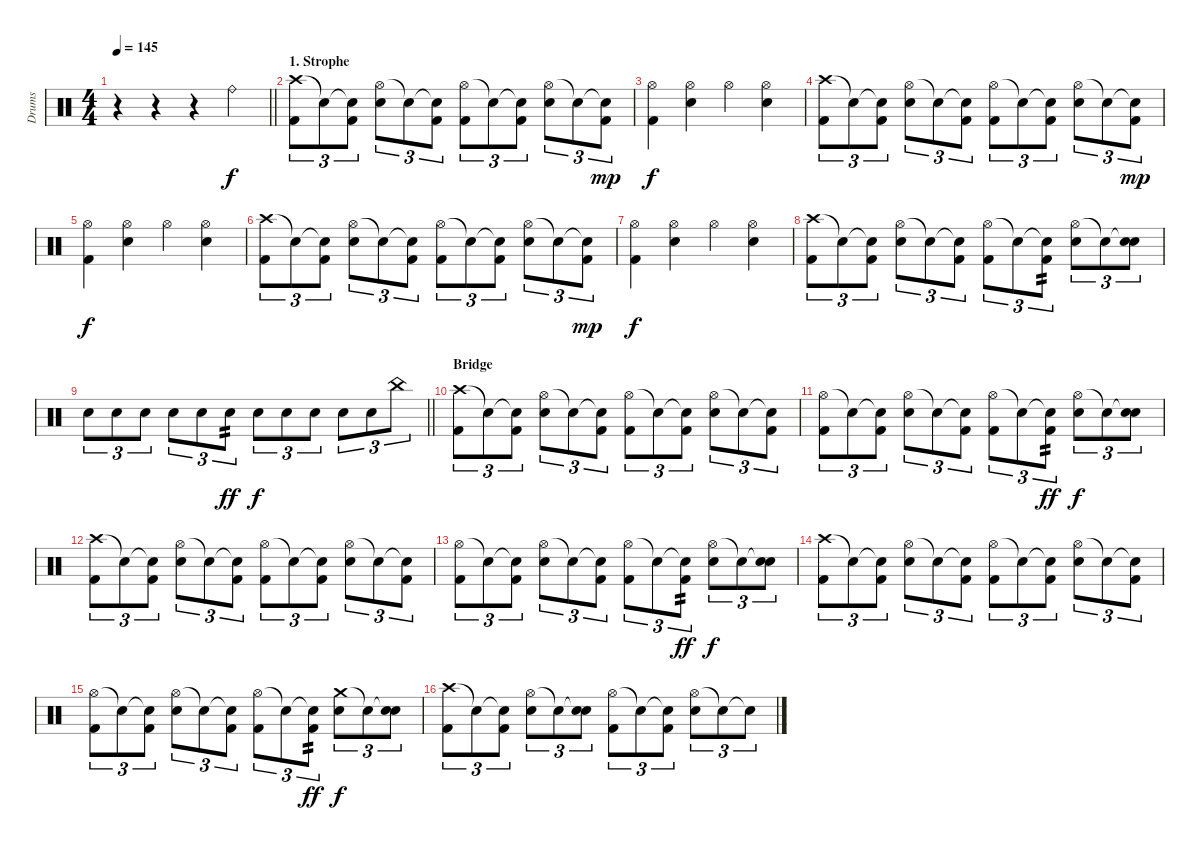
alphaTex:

\track ("Drums" "Drums") {instrument percussion}
\staff {score}
\articulation defaults
\ts (4 4)
\tempo 145
\clef neutral
\barLineRight lightlight
\ks c
r.4{dy f} r.4 r.4 "Ride (bell)".4 |
\section ("" "1. Strophe")
("Crash high (hit)" "Kick (hit) 2").8{tu (3 2)} "Snare (hit)"{t}.8{tu (3 2)} ("Snare (hit)"{t} "Kick (hit) 2").8{tu (3 2)} ("Hi-Hat (open)" "Snare (hit) 2").8{tu (3 2)} "Snare (hit)"{t}.8{tu (3 2)} ("Snare (hit)"{t} "Kick (hit) 2").8{tu (3 2)} ("Hi-Hat (open)" "Kick (hit) 2").8{tu (3 2)} "Snare (hit)"{t}.8{tu (3 2)} ("Snare (hit)"{t} "Kick (hit) 2").8{tu (3 2)} ("Hi-Hat (open)" "Snare (hit) 2").8{tu (3 2)} "Snare (hit)"{t}.8{tu (3 2)} ("Snare (hit)"{t} "Kick (hit) 2").8{tu (3 2) dy mp} |
("Hi-Hat (open)" "Kick (hit) 2").4{dy f} ("Hi-Hat (open)" "Snare (hit) 2").4 "Hi-Hat (open)".4 ("Hi-Hat (open)" "Snare (hit) 2").4 |
("Crash high (hit)" "Kick (hit) 2").8{tu (3 2)} "Snare (hit)"{t}.8{tu (3 2)} ("Snare (hit)"{t} "Kick (hit) 2").8{tu (3 2)} ("Hi-Hat (open)" "Snare (hit) 2").8{tu (3 2)} "Snare (hit)"{t}.8{tu (3 2)} ("Snare (hit)"{t} "Kick (hit) 2").8{tu (3 2)} ("Hi-Hat (open)" "Kick (hit) 2").8{tu (3 2)} "Snare (hit)"{t}.8{tu (3 2)} ("Snare (hit)"{t} "Kick (hit) 2").8{tu (3 2)} ("Hi-Hat (open)" "Snare (hit) 2").8{tu (3 2)} "Snare (hit)"{t}.8{tu (3 2)} ("Snare (hit)"{t} "Kick (hit) 2").8{tu (3 2) dy mp} |
("Hi-Hat (open)" "Kick (hit) 2").4{dy f} ("Hi-Hat (open)" "Snare (hit) 2").4 "Hi-Hat (open)".4 ("Hi-Hat (open)" "Snare (hit) 2").4 |
("Crash high (hit)" "Kick (hit) 2").8{tu (3 2)} "Snare (hit)"{t}.8{tu (3 2)} ("Snare (hit)"{t} "Kick (hit) 2").8{tu (3 2)} ("Hi-Hat (open)" "Snare (hit) 2").8{tu (3 2)} "Snare (hit)"{t}.8{tu (3 2)} ("Snare (hit)"{t} "Kick (hit) 2").8{tu (3 2)} ("Hi-Hat (open)" "Kick (hit) 2").8{tu (3 2)} "Snare (hit)"{t}.8{tu (3 2)} ("Snare (hit)"{t} "Kick (hit) 2").8{tu (3 2)} ("Hi-Hat (open)" "Snare (hit) 2").8{tu (3 2)} "Snare (hit)"{t}.8{tu (3 2)} ("Snare (hit)"{t} "Kick (hit) 2").8{tu (3 2) dy mp} |
("Hi-Hat (open)" "Kick (hit) 2").4{dy f} ("Hi-Hat (open)" "Snare (hit) 2").4 "Hi-Hat (open)".4 ("Hi-Hat (open)" "Snare (hit) 2").4 |
("Crash high (hit)" "Kick (hit) 2").8{tu (3 2)} "Snare (hit)"{t}.8{tu (3 2)} ("Snare (hit)"{t} "Kick (hit) 2").8{tu (3 2)} ("Hi-Hat (open)" "Snare (hit) 2").8{tu (3 2)} "Snare (hit)"{t}.8{tu (3 2)} ("Snare (hit)"{t} "Kick (hit) 2").8{tu (3 2)} ("Hi-Hat (open)" "Kick (hit) 2").8{tu (3 2)} "Snare (hit)"{t}.8{tu (3 2)} ("Snare (hit)"{t} "Kick (hit) 2").8{tu (3 2) tp 2} ("Hi-Hat (open)" "Snare (hit) 2").8{tu (3 2)} "Snare (hit)"{t}.8{tu (3 2)} ("Snare (hit)"{t} "Snare (hit) 2").8{tu (3 2)} |
\barLineRight lightlight "Electric Snare (hit)".8{tu (3 2)} "Electric Snare (hit)".8{tu (3 2)} "Electric Snare (hit)".8{tu (3 2)} "Electric Snare (hit)".8{tu (3 2)} "Electric Snare (hit)".8{tu (3 2)} "Electric Snare (hit)".8{tu (3 2) tp 2 dy ff} "Electric Snare (hit)".8{tu (3 2) dy f} "Electric Snare (hit)".8{tu (3 2)} "Electric Snare (hit)".8{tu (3 2)} "Electric Snare (hit)".8{tu (3 2)} "Electric Snare (hit)".8{tu (3 2)} "China (hit)".8{tu (3 2)}
|
\section ("" "Bridge")
("Crash high (hit)" "Kick (hit) 2").8{tu (3 2)} "Snare (hit)"{t}.8{tu (3 2)} ("Snare (hit)"{t} "Kick (hit) 2").8{tu (3 2)} ("Hi-Hat (open)" "Snare (hit) 2").8{tu (3 2)} "Snare (hit)"{t}.8{tu (3 2)} ("Snare (hit)"{t} "Kick (hit) 2").8{tu (3 2)} ("Hi-Hat (open)" "Kick (hit) 2").8{tu (3 2)} "Snare (hit)"{t}.8{tu (3 2)} ("Snare (hit)"{t} "Kick (hit) 2").8{tu (3 2)} ("Hi-Hat (open)" "Snare (hit) 2").8{tu (3 2)} "Snare (hit)"{t}.8{tu (3 2)} ("Snare (hit)"{t} "Kick (hit) 2").8{tu (3 2)} |
("Hi-Hat (open)" "Kick (hit) 2").8{tu (3 2)} "Snare (hit)"{t}.8{tu (3 2)} ("Snare (hit)"{t} "Kick (hit) 2").8{tu (3 2)} ("Hi-Hat (open)" "Snare (hit) 2").8{tu (3 2)} "Snare (hit)"{t}.8{tu (3 2)} ("Snare (hit)"{t} "Kick (hit) 2").8{tu (3 2)} ("Hi-Hat (open)" "Kick (hit) 2").8{tu (3 2)} "Snare (hit)"{t}.8{tu (3 2)} ("Snare (hit)"{t} "Kick (hit) 2").8{tu (3 2) tp 2 dy ff} ("Hi-Hat (open)" "Snare (hit) 2").8{tu (3 2) dy f} "Snare (hit)"{t}.8{tu (3 2)} ("Snare (hit)"{t} "Snare (hit) 2").8{tu (3 2)} |
("Crash high (hit)" "Kick (hit) 2").8{tu (3 2)} "Snare (hit)"{t}.8{tu (3 2)} ("Snare (hit)"{t} "Kick (hit) 2").8{tu (3 2)} ("Hi-Hat (open)" "Snare (hit) 2").8{tu (3 2)} "Snare (hit)"{t}.8{tu (3 2)} ("Snare (hit)"{t} "Kick (hit) 2").8{tu (3 2)} ("Hi-Hat (open)" "Kick (hit) 2").8{tu (3 2)} "Snare (hit)"{t}.8{tu (3 2)} ("Snare (hit)"{t} "Kick (hit) 2").8{tu (3 2)} ("Hi-Hat (open)" "Snare (hit) 2").8{tu (3 2)} "Snare (hit)"{t}.8{tu (3 2)} ("Snare (hit)"{t} "Kick (hit) 2").8{tu (3 2)} |
("Hi-Hat (open)" "Kick (hit) 2").8{tu (3 2)} "Snare (hit)"{t}.8{tu (3 2)} ("Snare (hit)"{t} "Kick (hit) 2").8{tu (3 2)} ("Hi-Hat (open)" "Snare (hit) 2").8{tu (3 2)} "Snare (hit)"{t}.8{tu (3 2)} ("Snare (hit)"{t} "Kick (hit) 2").8{tu (3 2)} ("Hi-Hat (open)" "Kick (hit) 2").8{tu (3 2)} "Snare (hit)"{t}.8{tu (3 2)} ("Snare (hit)"{t} "Kick (hit) 2").8{tu (3 2) tp 2 dy ff} ("Hi-Hat (open)" "Snare (hit) 2").8{tu (3 2) dy f} "Snare (hit)"{t}.8{tu (3 2)} ("Snare (hit)"{t} "Snare (hit) 2").8{tu (3 2)} |
("Crash high (hit)" "Kick (hit) 2").8{tu (3 2)} "Snare (hit)"{t}.8{tu (3 2)} ("Snare (hit)"{t} "Kick (hit) 2").8{tu (3 2)} ("Hi-Hat (open)" "Snare (hit) 2").8{tu (3 2)} "Snare (hit)"{t}.8{tu (3 2)} ("Snare (hit)"{t} "Kick (hit) 2").8{tu (3 2)} ("Hi-Hat (open)" "Kick (hit) 2").8{tu (3 2)} "Snare (hit)"{t}.8{tu (3 2)} ("Snare (hit)"{t} "Kick (hit) 2").8{tu (3 2)} ("Hi-Hat (open)" "Snare (hit) 2").8{tu (3 2)} "Snare (hit)"{t}.8{tu (3 2)} ("Snare (hit)"{t} "Kick (hit) 2").8{tu (3 2)} |
("Hi-Hat (open)" "Kick (hit) 2").8{tu (3 2)} "Snare (hit)"{t}.8{tu (3 2)} ("Snare (hit)"{t} "Kick (hit) 2").8{tu (3 2)} ("Hi-Hat (open)" "Snare (hit) 2").8{tu (3 2)} "Snare (hit)"{t}.8{tu (3 2)} ("Snare (hit)"{t} "Kick (hit) 2").8{tu (3 2)} ("Hi-Hat (open)" "Kick (hit) 2").8{tu (3 2)} "Snare (hit)"{t}.8{tu (3 2)} ("Snare (hit)"{t} "Kick (hit) 2").8{tu (3 2) tp 2 dy ff} ("Crash medium (hit)" "Snare (hit) 2").8{tu (3 2) dy f} "Snare (hit)"{t}.8{tu (3 2)} ("Snare (hit)"{t} "Snare (hit) 2").8{tu (3 2)} |
("Crash high (hit)" "Kick (hit) 2").8{tu (3 2)} "Snare (hit)"{t}.8{tu (3 2)} ("Snare (hit)"{t} "Kick (hit) 2").8{tu (3 2)} ("Hi-Hat (open)" "Snare (hit) 2").8{tu (3 2)} "Snare (hit)"{t}.8{tu (3 2)} ("Snare (hit)"{t} "Snare (hit) 2").8{tu (3 2)} ("Hi-Hat (open)" "Kick (hit) 2").8{tu (3 2)} "Snare (hit)"{t}.8{tu (3 2)} ("Snare (hit)"{t} "Kick (hit) 2").8{tu (3 2)} ("Hi-Hat (open)" "Snare (hit) 2").8{tu (3 2)} "Snare (hit)"{t}.8{tu (3 2)} "Snare (hit)"{t}.8{tu (3 2)}
